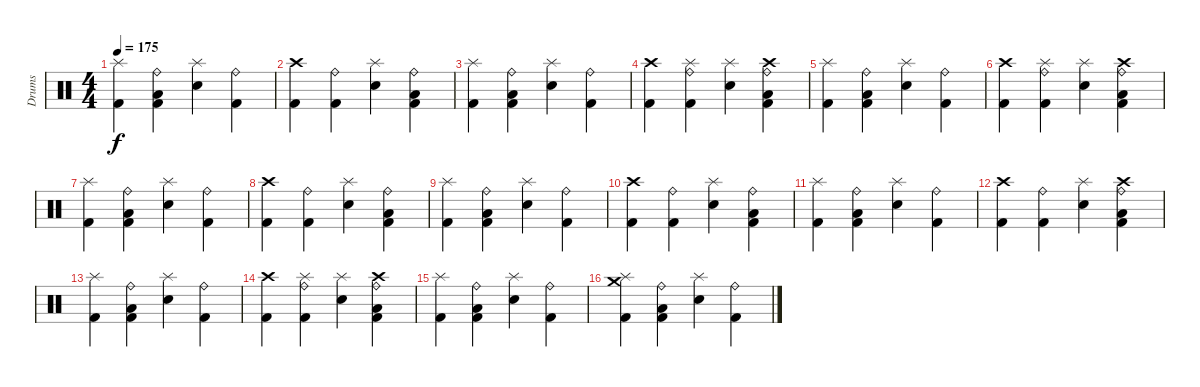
\track ("Drums" "Drums") {instrument percussion}
\staff {score}
\articulation defaults
\ts (4 4)
\tempo 175
\clef neutral
\ks c
("Kick (hit) 2" "Splash (hit)").4{dy f} ("Kick (hit) 2" "Low Tom (hit)" "Ride (bell)").4 ("Electric Snare (hit)" "Splash (hit)").4 ("Kick (hit) 2" "Ride (bell)").4 |
("Kick (hit) 2" "Crash high (hit)").4 ("Kick (hit) 2" "Ride (bell)").4 ("Splash (hit)" "Electric Snare (hit)").4 ("Kick (hit) 2" "Low Tom (hit)" "Ride (bell)").4 |
("Kick (hit) 2" "Splash (hit)").4 ("Kick (hit) 2" "Low Tom (hit)" "Ride (bell)").4 ("Electric Snare (hit)" "Splash (hit)").4 ("Kick (hit) 2" "Ride (bell)").4 |
("Kick (hit) 2" "Crash high (hit)").4 ("Kick (hit) 2" "Splash (hit)" "Ride (bell)").4 ("Splash (hit)" "Electric Snare (hit)").4 ("Kick (hit) 2" "Low Tom (hit)" "Ride (bell)" "Crash high (hit)").4 |
("Kick (hit) 2" "Splash (hit)").4 ("Kick (hit) 2" "Low Tom (hit)" "Ride (bell)").4 ("Electric Snare (hit)" "Splash (hit)").4 ("Kick (hit) 2" "Ride (bell)").4 |
("Kick (hit) 2" "Crash high (hit)").4 ("Kick (hit) 2" "Splash (hit)" "Ride (bell)").4 ("Splash (hit)" "Electric Snare (hit)").4 ("Kick (hit) 2" "Low Tom (hit)" "Ride (bell)" "Crash high (hit)").4 |
("Kick (hit) 2" "Splash (hit)").4 ("Kick (hit) 2" "Low Tom (hit)" "Ride (bell)").4 ("Electric Snare (hit)" "Splash (hit)").4 ("Kick (hit) 2" "Ride (bell)").4 |
("Kick (hit) 2" "Crash high (hit)").4 ("Kick (hit) 2" "Ride (bell)").4 ("Splash (hit)" "Electric Snare (hit)").4 ("Kick (hit) 2" "Low Tom (hit)" "Ride (bell)").4 |
("Kick (hit) 2" "Splash (hit)").4 ("Kick (hit) 2" "Low Tom (hit)" "Ride (bell)").4 ("Electric Snare (hit)" "Splash (hit)").4 ("Kick (hit) 2" "Ride (bell)").4 |
("Kick (hit) 2" "Crash high (hit)").4 ("Kick (hit) 2" "Ride (bell)").4 ("Splash (hit)" "Electric Snare (hit)").4 ("Kick (hit) 2" "Low Tom (hit)" "Ride (bell)").4 |
("Kick (hit) 2" "Splash (hit)").4 ("Kick (hit) 2" "Low Tom (hit)" "Ride (bell)").4 ("Electric Snare (hit)" "Splash (hit)").4 ("Kick (hit) 2" "Ride (bell)").4 |
("Kick (hit) 2" "Crash high (hit)").4 ("Kick (hit) 2" "Ride (bell)").4 ("Splash (hit)" "Electric Snare (hit)").4 ("Kick (hit) 2" "Low Tom (hit)" "Ride (bell)" "Crash high (hit)").4 |
("Kick (hit) 2" "Splash (hit)").4 ("Kick (hit) 2" "Low Tom (hit)" "Ride (bell)").4 ("Electric Snare (hit)" "Splash (hit)").4 ("Kick (hit) 2" "Ride (bell)").4 |
("Kick (hit) 2" "Crash high (hit)").4 ("Kick (hit) 2" "Splash (hit)" "Ride (bell)").4 ("Splash (hit)" "Electric Snare (hit)").4 ("Kick (hit) 2" "Low Tom (hit)" "Ride (bell)" "Crash high (hit)").4 |
("Kick (hit) 2" "Splash (hit)").4 ("Kick (hit) 2" "Low Tom (hit)" "Ride (bell)").4 ("Electric Snare (hit)" "Splash (hit)").4 ("Kick (hit) 2" "Ride (bell)").4 |
("Kick (hit) 2" "Splash (hit)" "Crash medium (hit)").4 ("Kick (hit) 2" "Low Tom (hit)" "Ride (bell)").4 ("Electric Snare (hit)" "Splash (hit)").4 ("Kick (hit) 2" "Ride (bell)").4
